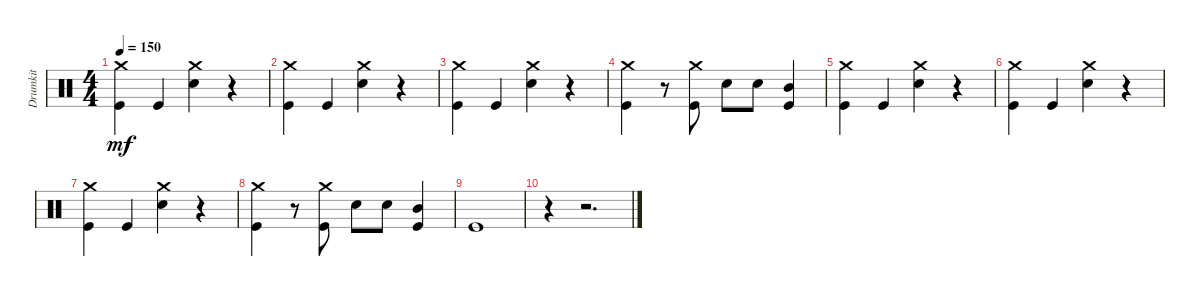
\track ("Drumkit" "Drumkit") {instrument percussion}
\staff {score}
\articulation defaults
\ts (4 4)
\tempo 150
\clef neutral
\ks c
("Kick (hit)" "Crash medium (hit)").4{dy mf} "Kick (hit)".4 ("Snare (hit) 2" "Crash medium (hit)").4 r.4 |
("Kick (hit)" "Crash medium (hit)").4 "Kick (hit)".4 ("Snare (hit) 2" "Crash medium (hit)").4 r.4 |
("Kick (hit)" "Crash medium (hit)").4 "Kick (hit)".4 ("Snare (hit) 2" "Crash medium (hit)").4 r.4 |
("Kick (hit)" "Crash medium (hit)").4 r.8 ("Kick (hit)" "Crash medium (hit)").8 "Snare (hit) 2".8 "Snare (hit) 2".8 ("Kick (hit)" "Mid Tom (hit)").4 |
("Kick (hit)" "Crash medium (hit)").4 "Kick (hit)".4 ("Snare (hit) 2" "Crash medium (hit)").4 r.4 |
("Kick (hit)" "Crash medium (hit)").4 "Kick (hit)".4 ("Snare (hit) 2" "Crash medium (hit)").4 r.4 |
("Kick (hit)" "Crash medium (hit)").4 "Kick (hit)".4 ("Snare (hit) 2" "Crash medium (hit)").4 r.4 |
("Kick (hit)" "Crash medium (hit)").4 r.8 ("Kick (hit)" "Crash medium (hit)").8 "Snare (hit) 2".8 "Snare (hit) 2".8 ("Kick (hit)" "Mid Tom (hit)").4 |
"Kick (hit)".1 |
r.4 r.2{d}
